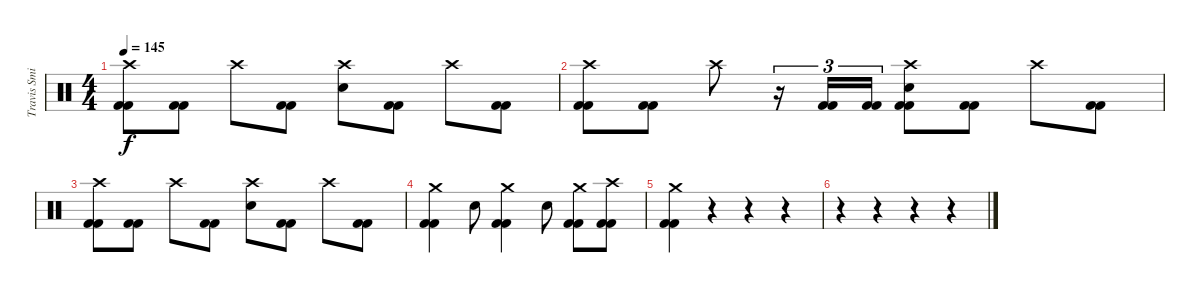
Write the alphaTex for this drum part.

\track ("Travis Smith" "Travis Smi") {instrument percussion}
\staff {score}
\articulation defaults
\ts (4 4)
\tempo 145
\clef neutral
\ks c
("Crash high (hit)" "Kick (hit) 2" "Kick (hit) 2").8{dy f} ("Kick (hit) 2" "Kick (hit) 2").8 "Crash high (hit)".8 ("Kick (hit) 2" "Kick (hit) 2").8 ("Crash high (hit)" "Electric Snare (hit)").8 ("Kick (hit) 2" "Kick (hit) 2").8 "Crash high (hit)".8 ("Kick (hit) 2" "Kick (hit) 2").8 |
("Crash high (hit)" "Kick (hit) 2" "Kick (hit) 2").8 ("Kick (hit) 2" "Kick (hit) 2").8 "Crash high (hit)".8 r.16{tu (3 2)} ("Kick (hit) 2" "Kick (hit) 2").16{tu (3 2)} ("Kick (hit) 2" "Kick (hit) 2").16{tu (3 2)} ("Crash high (hit)" "Electric Snare (hit)" "Kick (hit) 2" "Kick (hit) 2").8 ("Kick (hit) 2" "Kick (hit) 2").8 "Crash high (hit)".8 ("Kick (hit) 2" "Kick (hit) 2").8 |
("Crash high (hit)" "Kick (hit) 2" "Kick (hit) 2").8 ("Kick (hit) 2" "Kick (hit) 2").8 "Crash high (hit)".8 ("Kick (hit) 2" "Kick (hit) 2").8 ("Crash high (hit)" "Electric Snare (hit)").8 ("Kick (hit) 2" "Kick (hit) 2").8 "Crash high (hit)".8 ("Kick (hit) 2" "Kick (hit) 2").8 |
("Crash medium (hit)" "Kick (hit) 2" "Kick (hit) 2").4 "Electric Snare (hit)".8 ("Crash medium (hit)" "Kick (hit) 2" "Kick (hit) 2").4 "Electric Snare (hit)".8 ("Crash medium (hit)" "Kick (hit) 2" "Kick (hit) 2").8 ("Crash high (hit)" "Kick (hit) 2" "Kick (hit) 2").8 |
("Crash medium (hit)" "Kick (hit) 2" "Kick (hit) 2").4 r.4 r.4 r.4 |
r.4 r.4 r.4 r.4
